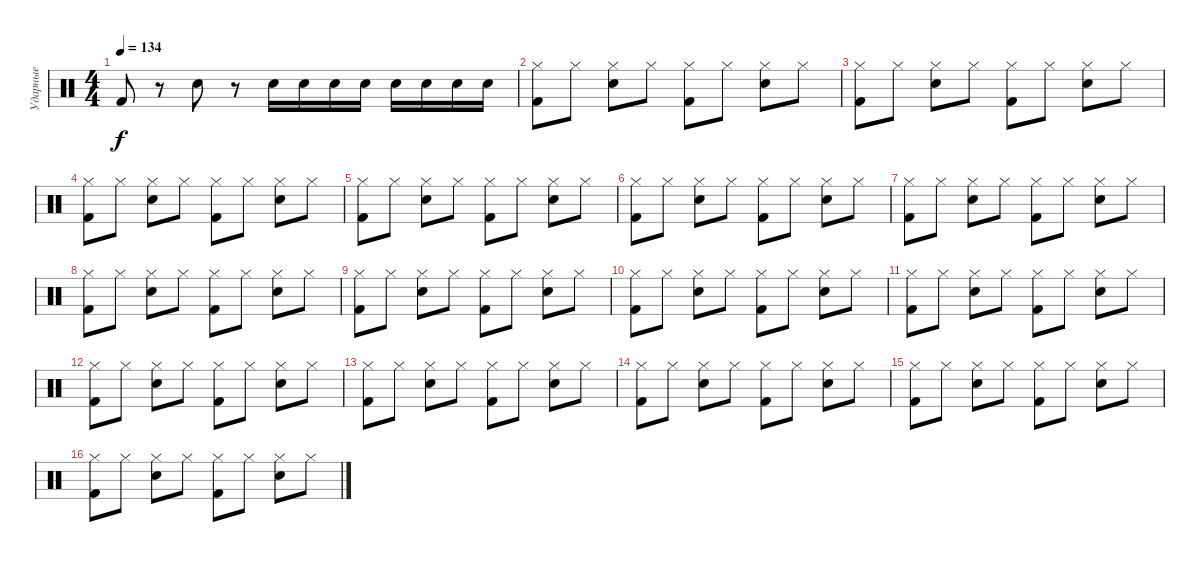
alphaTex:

\track ("Ударные" "Ударные") {instrument percussion}
\staff {score}
\articulation defaults
\ts (4 4)
\tempo 134
\clef neutral
\ks c "Kick (hit) 2".8{dy f}
r.8 "Snare (hit) 2".8 r.8 "Snare (hit) 2".16 "Snare (hit) 2".16 "Snare (hit) 2".16 "Snare (hit) 2".16 "Snare (hit) 2".16 "Snare (hit) 2".16 "Snare (hit) 2".16 "Snare (hit) 2".16 |
("Hi-Hat (closed)" "Kick (hit) 2").8 "Hi-Hat (closed)".8 ("Hi-Hat (closed)" "Snare (hit) 2").8 "Hi-Hat (closed)".8 ("Hi-Hat (closed)" "Kick (hit) 2").8 "Hi-Hat (closed)".8 ("Hi-Hat (closed)" "Snare (hit) 2").8 "Hi-Hat (closed)".8 |
("Hi-Hat (closed)" "Kick (hit) 2").8 "Hi-Hat (closed)".8 ("Hi-Hat (closed)" "Snare (hit) 2").8 "Hi-Hat (closed)".8 ("Hi-Hat (closed)" "Kick (hit) 2").8 "Hi-Hat (closed)".8 ("Hi-Hat (closed)" "Snare (hit) 2").8 "Hi-Hat (closed)".8 |
("Hi-Hat (closed)" "Kick (hit) 2").8 "Hi-Hat (closed)".8 ("Hi-Hat (closed)" "Snare (hit) 2").8 "Hi-Hat (closed)".8 ("Hi-Hat (closed)" "Kick (hit) 2").8 "Hi-Hat (closed)".8 ("Hi-Hat (closed)" "Snare (hit) 2").8 "Hi-Hat (closed)".8 |
("Hi-Hat (closed)" "Kick (hit) 2").8 "Hi-Hat (closed)".8 ("Hi-Hat (closed)" "Snare (hit) 2").8 "Hi-Hat (closed)".8 ("Hi-Hat (closed)" "Kick (hit) 2").8 "Hi-Hat (closed)".8 ("Hi-Hat (closed)" "Snare (hit) 2").8 "Hi-Hat (closed)".8 |
("Hi-Hat (closed)" "Kick (hit) 2").8 "Hi-Hat (closed)".8 ("Hi-Hat (closed)" "Snare (hit) 2").8 "Hi-Hat (closed)".8 ("Hi-Hat (closed)" "Kick (hit) 2").8 "Hi-Hat (closed)".8 ("Hi-Hat (closed)" "Snare (hit) 2").8 "Hi-Hat (closed)".8 |
("Hi-Hat (closed)" "Kick (hit) 2").8 "Hi-Hat (closed)".8 ("Hi-Hat (closed)" "Snare (hit) 2").8 "Hi-Hat (closed)".8 ("Hi-Hat (closed)" "Kick (hit) 2").8 "Hi-Hat (closed)".8 ("Hi-Hat (closed)" "Snare (hit) 2").8 "Hi-Hat (closed)".8 |
("Hi-Hat (closed)" "Kick (hit) 2").8 "Hi-Hat (closed)".8 ("Hi-Hat (closed)" "Snare (hit) 2").8 "Hi-Hat (closed)".8 ("Hi-Hat (closed)" "Kick (hit) 2").8 "Hi-Hat (closed)".8 ("Hi-Hat (closed)" "Snare (hit) 2").8 "Hi-Hat (closed)".8 |
("Hi-Hat (closed)" "Kick (hit) 2").8 "Hi-Hat (closed)".8 ("Hi-Hat (closed)" "Snare (hit) 2").8 "Hi-Hat (closed)".8 ("Hi-Hat (closed)" "Kick (hit) 2").8 "Hi-Hat (closed)".8 ("Hi-Hat (closed)" "Snare (hit) 2").8 "Hi-Hat (closed)".8 |
("Hi-Hat (closed)" "Kick (hit) 2").8 "Hi-Hat (closed)".8 ("Hi-Hat (closed)" "Snare (hit) 2").8 "Hi-Hat (closed)".8 ("Hi-Hat (closed)" "Kick (hit) 2").8 "Hi-Hat (closed)".8 ("Hi-Hat (closed)" "Snare (hit) 2").8 "Hi-Hat (closed)".8 |
("Hi-Hat (closed)" "Kick (hit) 2").8 "Hi-Hat (closed)".8 ("Hi-Hat (closed)" "Snare (hit) 2").8 "Hi-Hat (closed)".8 ("Hi-Hat (closed)" "Kick (hit) 2").8 "Hi-Hat (closed)".8 ("Hi-Hat (closed)" "Snare (hit) 2").8 "Hi-Hat (closed)".8 |
("Hi-Hat (closed)" "Kick (hit) 2").8 "Hi-Hat (closed)".8 ("Hi-Hat (closed)" "Snare (hit) 2").8 "Hi-Hat (closed)".8 ("Hi-Hat (closed)" "Kick (hit) 2").8 "Hi-Hat (closed)".8 ("Hi-Hat (closed)" "Snare (hit) 2").8 "Hi-Hat (closed)".8 |
("Hi-Hat (closed)" "Kick (hit) 2").8 "Hi-Hat (closed)".8 ("Hi-Hat (closed)" "Snare (hit) 2").8 "Hi-Hat (closed)".8 ("Hi-Hat (closed)" "Kick (hit) 2").8 "Hi-Hat (closed)".8 ("Hi-Hat (closed)" "Snare (hit) 2").8 "Hi-Hat (closed)".8 |
("Hi-Hat (closed)" "Kick (hit) 2").8 "Hi-Hat (closed)".8 ("Hi-Hat (closed)" "Snare (hit) 2").8 "Hi-Hat (closed)".8 ("Hi-Hat (closed)" "Kick (hit) 2").8 "Hi-Hat (closed)".8 ("Hi-Hat (closed)" "Snare (hit) 2").8 "Hi-Hat (closed)".8 |
("Hi-Hat (closed)" "Kick (hit) 2").8 "Hi-Hat (closed)".8 ("Hi-Hat (closed)" "Snare (hit) 2").8 "Hi-Hat (closed)".8 ("Hi-Hat (closed)" "Kick (hit) 2").8 "Hi-Hat (closed)".8 ("Hi-Hat (closed)" "Snare (hit) 2").8 "Hi-Hat (closed)".8 |
("Hi-Hat (closed)" "Kick (hit) 2").8 "Hi-Hat (closed)".8 ("Hi-Hat (closed)" "Snare (hit) 2").8 "Hi-Hat (closed)".8 ("Hi-Hat (closed)" "Kick (hit) 2").8 "Hi-Hat (closed)".8 ("Hi-Hat (closed)" "Snare (hit) 2").8 "Hi-Hat (closed)".8
